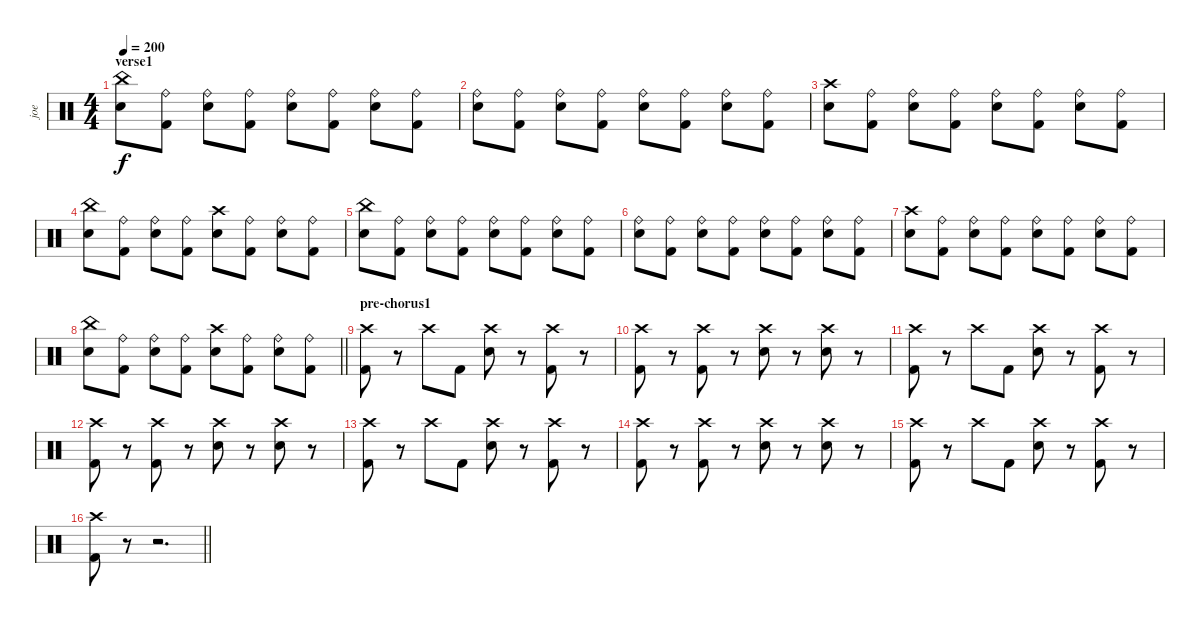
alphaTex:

\track ("joe" "joe") {instrument percussion}
\staff {score}
\articulation defaults
\ts (4 4)
\section ("" "verse1")
\tempo 200
\clef neutral
\ks c
("China (hit)" "Snare (hit) 2").8{dy f} ("Ride (bell)" "Kick (hit) 2").8 ("Ride (bell)" "Snare (hit) 2").8 ("Ride (bell)" "Kick (hit) 2").8 ("Ride (bell)" "Snare (hit) 2").8 ("Ride (bell)" "Kick (hit) 2").8 ("Ride (bell)" "Snare (hit) 2").8 ("Ride (bell)" "Kick (hit) 2").8 |
("Ride (bell)" "Snare (hit) 2").8 ("Ride (bell)" "Kick (hit) 2").8 ("Ride (bell)" "Snare (hit) 2").8 ("Ride (bell)" "Kick (hit) 2").8 ("Ride (bell)" "Snare (hit) 2").8 ("Ride (bell)" "Kick (hit) 2").8 ("Ride (bell)" "Snare (hit) 2").8 ("Ride (bell)" "Kick (hit) 2").8 |
("Crash high (hit)" "Snare (hit) 2").8 ("Ride (bell)" "Kick (hit) 2").8 ("Ride (bell)" "Snare (hit) 2").8 ("Ride (bell)" "Kick (hit) 2").8 ("Ride (bell)" "Snare (hit) 2").8 ("Ride (bell)" "Kick (hit) 2").8 ("Ride (bell)" "Snare (hit) 2").8 ("Ride (bell)" "Kick (hit) 2").8 |
("China (hit)" "Snare (hit) 2").8 ("Ride (bell)" "Kick (hit) 2").8 ("Ride (bell)" "Snare (hit) 2").8 ("Ride (bell)" "Kick (hit) 2").8 ("Crash high (hit)" "Snare (hit) 2").8 ("Ride (bell)" "Kick (hit) 2").8 ("Ride (bell)" "Snare (hit) 2").8 ("Ride (bell)" "Kick (hit) 2").8 |
("China (hit)" "Snare (hit) 2").8 ("Ride (bell)" "Kick (hit) 2").8 ("Ride (bell)" "Snare (hit) 2").8 ("Ride (bell)" "Kick (hit) 2").8 ("Ride (bell)" "Snare (hit) 2").8 ("Ride (bell)" "Kick (hit) 2").8 ("Ride (bell)" "Snare (hit) 2").8 ("Ride (bell)" "Kick (hit) 2").8 |
("Ride (bell)" "Snare (hit) 2").8 ("Ride (bell)" "Kick (hit) 2").8 ("Ride (bell)" "Snare (hit) 2").8 ("Ride (bell)" "Kick (hit) 2").8 ("Ride (bell)" "Snare (hit) 2").8 ("Ride (bell)" "Kick (hit) 2").8 ("Ride (bell)" "Snare (hit) 2").8 ("Ride (bell)" "Kick (hit) 2").8 |
("Crash high (hit)" "Snare (hit) 2").8 ("Ride (bell)" "Kick (hit) 2").8 ("Ride (bell)" "Snare (hit) 2").8 ("Ride (bell)" "Kick (hit) 2").8 ("Ride (bell)" "Snare (hit) 2").8 ("Ride (bell)" "Kick (hit) 2").8 ("Ride (bell)" "Snare (hit) 2").8 ("Ride (bell)" "Kick (hit) 2").8 |
\barLineRight lightlight
("China (hit)" "Snare (hit) 2").8 ("Ride (bell)" "Kick (hit) 2").8 ("Ride (bell)" "Snare (hit) 2").8 ("Ride (bell)" "Kick (hit) 2").8 ("Crash high (hit)" "Snare (hit) 2").8 ("Ride (bell)" "Kick (hit) 2").8 ("Ride (bell)" "Snare (hit) 2").8 ("Ride (bell)" "Kick (hit) 2").8 |
\section ("" "pre-chorus1")
("Crash high (hit)" "Kick (hit) 2").8 r.8 "Crash high (hit)".8 "Kick (hit) 2".8 ("Crash high (hit)" "Snare (hit) 2").8 r.8 ("Crash high (hit)" "Kick (hit) 2").8 r.8 |
("Crash high (hit)" "Kick (hit) 2").8 r.8 ("Crash high (hit)" "Kick (hit) 2").8 r.8 ("Crash high (hit)" "Snare (hit) 2").8 r.8 ("Crash high (hit)" "Snare (hit) 2").8 r.8 |
("Crash high (hit)" "Kick (hit) 2").8 r.8 "Crash high (hit)".8 "Kick (hit) 2".8 ("Crash high (hit)" "Snare (hit) 2").8 r.8 ("Crash high (hit)" "Kick (hit) 2").8 r.8 |
("Crash high (hit)" "Kick (hit) 2").8 r.8 ("Crash high (hit)" "Kick (hit) 2").8 r.8 ("Crash high (hit)" "Snare (hit) 2").8 r.8 ("Crash high (hit)" "Snare (hit) 2").8 r.8 |
("Crash high (hit)" "Kick (hit) 2").8 r.8 "Crash high (hit)".8 "Kick (hit) 2".8 ("Crash high (hit)" "Snare (hit) 2").8 r.8 ("Crash high (hit)" "Kick (hit) 2").8 r.8 |
("Crash high (hit)" "Kick (hit) 2").8 r.8 ("Crash high (hit)" "Kick (hit) 2").8 r.8 ("Crash high (hit)" "Snare (hit) 2").8 r.8 ("Crash high (hit)" "Snare (hit) 2").8 r.8 |
("Crash high (hit)" "Kick (hit) 2").8 r.8 "Crash high (hit)".8 "Kick (hit) 2".8 ("Crash high (hit)" "Snare (hit) 2").8 r.8 ("Crash high (hit)" "Kick (hit) 2").8 r.8 |
\barLineRight lightlight
("Crash high (hit)" "Kick (hit) 2").8 r.8 r.2{d}
